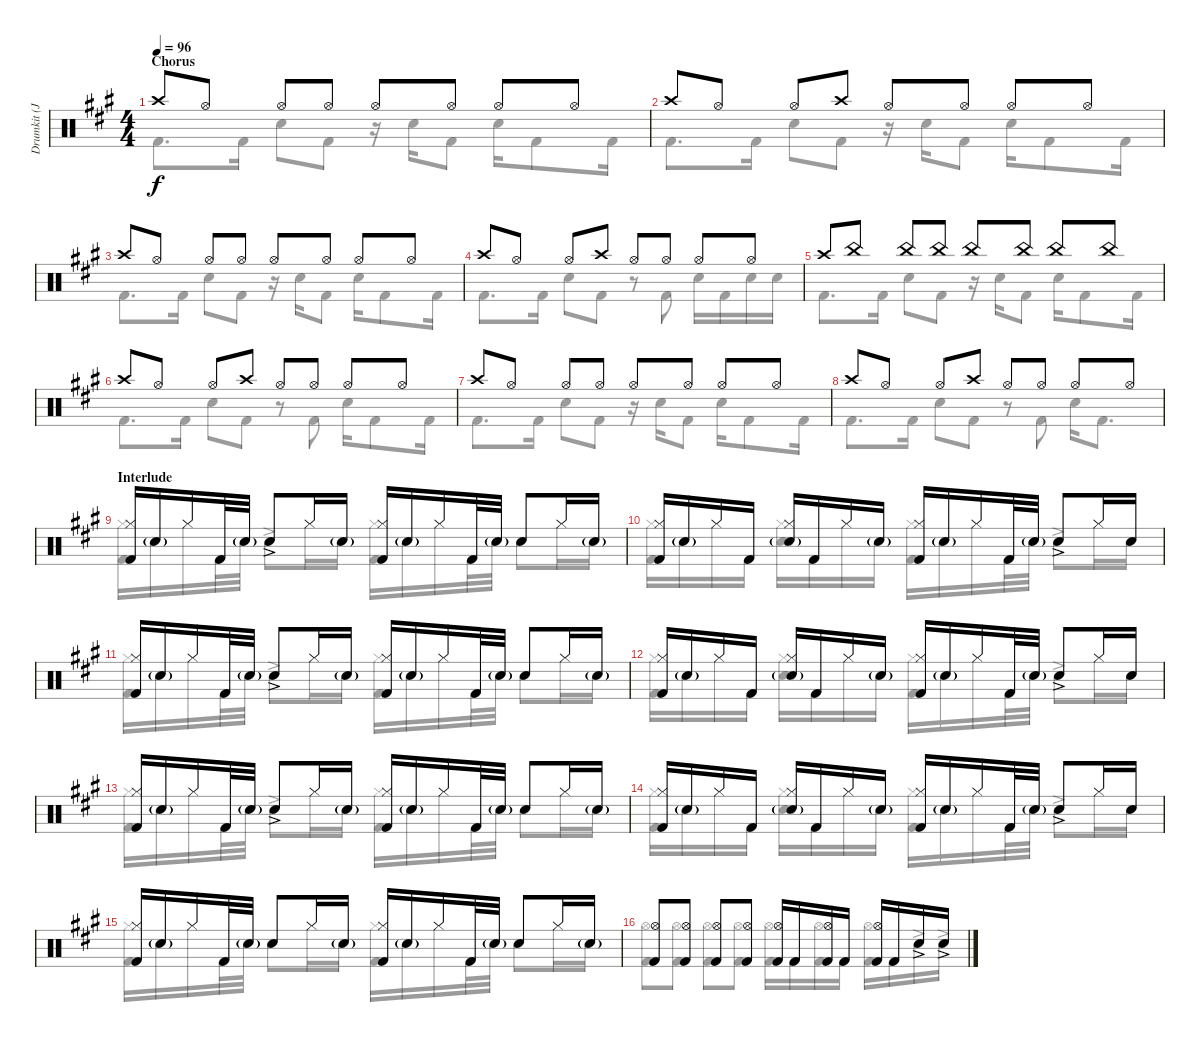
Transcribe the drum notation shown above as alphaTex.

\track ("Drumkit (John Otto)" "Drumkit (J") {instrument percussion}
\staff {score}
\articulation defaults
\voice
\ts (4 4)
\section ("" "Chorus")
\tempo 96
\clef neutral
\ks a "Crash high (hit)".8{dy f} "Hi-Hat (open)".8 "Hi-Hat (open)".8 "Hi-Hat (open)".8 "Hi-Hat (open)".8 "Hi-Hat (open)".8 "Hi-Hat (open)".8 "Hi-Hat (open)".8
|
"Crash high (hit)".8 "Hi-Hat (open)".8 "Hi-Hat (open)".8 "Crash high (hit)".8 "Hi-Hat (open)".8 "Hi-Hat (open)".8 "Hi-Hat (open)".8 "Hi-Hat (open)".8 |
"Crash high (hit)".8 "Hi-Hat (open)".8 "Hi-Hat (open)".8 "Hi-Hat (open)".8 "Hi-Hat (open)".8 "Hi-Hat (open)".8 "Hi-Hat (open)".8 "Hi-Hat (open)".8 |
"Crash high (hit)".8 "Hi-Hat (open)".8 "Hi-Hat (open)".8 "Crash high (hit)".8 "Hi-Hat (open)".8 "Hi-Hat (open)".8 "Hi-Hat (open)".8 "Hi-Hat (open)".8 |
"Crash high (hit)".8 "China (hit)".8 "China (hit)".8 "China (hit)".8 "China (hit)".8 "China (hit)".8 "China (hit)".8 "China (hit)".8 |
"Crash high (hit)".8 "Hi-Hat (open)".8 "Hi-Hat (open)".8 "Crash high (hit)".8 "Hi-Hat (open)".8 "Hi-Hat (open)".8 "Hi-Hat (open)".8 "Hi-Hat (open)".8 |
"Crash high (hit)".8 "Hi-Hat (open)".8 "Hi-Hat (open)".8 "Hi-Hat (open)".8 "Hi-Hat (open)".8 "Hi-Hat (open)".8 "Hi-Hat (open)".8 "Hi-Hat (open)".8 |
"Crash high (hit)".8 "Hi-Hat (open)".8 "Hi-Hat (open)".8 "Crash high (hit)".8 "Hi-Hat (open)".8 "Hi-Hat (open)".8 "Hi-Hat (open)".8 "Hi-Hat (open)".8 |
\section ("" "Interlude")
("Kick (hit) 2" "Hi-Hat (closed)").16 "Snare (hit) 2"{g}.16 "Hi-Hat (closed)".16 "Kick (hit) 2".32 "Snare (hit) 2"{g}.32 "Snare (hit) 2"{ac}.8 "Hi-Hat (closed)".16 "Snare (hit) 2"{g}.16 ("Kick (hit) 2" "Hi-Hat (closed)").16 "Snare (hit) 2"{g}.16 "Hi-Hat (closed)".16 "Kick (hit) 2".32 "Snare (hit) 2"{g}.32 "Snare (hit) 2".8 "Hi-Hat (closed)".16 "Snare (hit) 2"{g}.16 |
("Kick (hit) 2" "Hi-Hat (closed)").16 "Snare (hit) 2"{g}.16 "Hi-Hat (closed)".16 "Kick (hit) 2".16 ("Hi-Hat (closed)" "Snare (hit) 2"{g}).16 "Kick (hit) 2".16 "Hi-Hat (closed)".16 "Snare (hit) 2"{g}.16 ("Kick (hit) 2" "Hi-Hat (closed)").16 "Snare (hit) 2"{g}.16 "Hi-Hat (closed)".16 "Kick (hit) 2".32 "Snare (hit) 2"{g}.32 "Snare (hit) 2"{ac}.8 "Hi-Hat (closed)".16 "Snare (hit) 2".16 |
("Kick (hit) 2" "Hi-Hat (closed)").16 "Snare (hit) 2"{g}.16 "Hi-Hat (closed)".16 "Kick (hit) 2".32 "Snare (hit) 2"{g}.32 "Snare (hit) 2"{ac}.8 "Hi-Hat (closed)".16 "Snare (hit) 2"{g}.16 ("Kick (hit) 2" "Hi-Hat (closed)").16 "Snare (hit) 2"{g}.16 "Hi-Hat (closed)".16 "Kick (hit) 2".32 "Snare (hit) 2"{g}.32 "Snare (hit) 2".8 "Hi-Hat (closed)".16 "Snare (hit) 2"{g}.16 |
("Kick (hit) 2" "Hi-Hat (closed)").16 "Snare (hit) 2"{g}.16 "Hi-Hat (closed)".16 "Kick (hit) 2".16 ("Hi-Hat (closed)" "Snare (hit) 2"{g}).16 "Kick (hit) 2".16 "Hi-Hat (closed)".16 "Snare (hit) 2"{g}.16 ("Kick (hit) 2" "Hi-Hat (closed)").16 "Snare (hit) 2"{g}.16 "Hi-Hat (closed)".16 "Kick (hit) 2".32 "Snare (hit) 2"{g}.32 "Snare (hit) 2"{ac}.8 "Hi-Hat (closed)".16 "Snare (hit) 2".16 |
("Kick (hit) 2" "Hi-Hat (closed)").16 "Snare (hit) 2"{g}.16 "Hi-Hat (closed)".16 "Kick (hit) 2".32 "Snare (hit) 2"{g}.32 "Snare (hit) 2"{ac}.8 "Hi-Hat (closed)".16 "Snare (hit) 2"{g}.16 ("Kick (hit) 2" "Hi-Hat (closed)").16 "Snare (hit) 2"{g}.16 "Hi-Hat (closed)".16 "Kick (hit) 2".32 "Snare (hit) 2"{g}.32 "Snare (hit) 2".8 "Hi-Hat (closed)".16 "Snare (hit) 2"{g}.16 |
("Kick (hit) 2" "Hi-Hat (closed)").16 "Snare (hit) 2"{g}.16 "Hi-Hat (closed)".16 "Kick (hit) 2".16 ("Hi-Hat (closed)" "Snare (hit) 2"{g}).16 "Kick (hit) 2".16 "Hi-Hat (closed)".16 "Snare (hit) 2"{g}.16 ("Kick (hit) 2" "Hi-Hat (closed)").16 "Snare (hit) 2"{g}.16 "Hi-Hat (closed)".16 "Kick (hit) 2".32 "Snare (hit) 2"{g}.32 "Snare (hit) 2"{ac}.8 "Hi-Hat (closed)".16 "Snare (hit) 2".16 |
("Kick (hit) 2" "Hi-Hat (closed)").16 "Snare (hit) 2"{g}.16 "Hi-Hat (closed)".16 "Kick (hit) 2".32 "Snare (hit) 2"{g}.32 "Snare (hit) 2".8 "Hi-Hat (closed)".16 "Snare (hit) 2"{g}.16 ("Kick (hit) 2" "Hi-Hat (closed)").16 "Snare (hit) 2"{g}.16 "Hi-Hat (closed)".16 "Kick (hit) 2".32 "Snare (hit) 2"{g}.32 "Snare (hit) 2".8 "Hi-Hat (closed)".16 "Snare (hit) 2"{g}.16 |
("Hi-Hat (open)" "Kick (hit) 2").8 ("Hi-Hat (open)" "Kick (hit) 2").8 ("Hi-Hat (open)" "Kick (hit) 2").8 ("Hi-Hat (open)" "Kick (hit) 2").8 ("Hi-Hat (open)" "Kick (hit) 2").16 "Kick (hit) 2".16 ("Hi-Hat (open)" "Kick (hit) 2").16 "Kick (hit) 2".16 ("Hi-Hat (open)" "Kick (hit) 2").16 "Kick (hit) 2".16 "Snare (hit) 2"{ac}.16 "Snare (hit) 2"{ac}.16
\voice
\clef neutral
\ottava regular
\simile none
\ks a "Kick (hit) 2".8{d dy f} "Kick (hit) 2".16 "Snare (hit) 2".8 "Kick (hit) 2".8
r.16 "Snare (hit) 2".16 "Kick (hit) 2".8 "Snare (hit) 2".16 "Kick (hit) 2".8 "Kick (hit) 2".16 |
"Kick (hit) 2".8{d} "Kick (hit) 2".16 "Snare (hit) 2".8 "Kick (hit) 2".8 r.16 "Snare (hit) 2".16 "Kick (hit) 2".8 "Snare (hit) 2".16 "Kick (hit) 2".8 "Kick (hit) 2".16 |
"Kick (hit) 2".8{d} "Kick (hit) 2".16 "Snare (hit) 2".8 "Kick (hit) 2".8 r.16 "Snare (hit) 2".16 "Kick (hit) 2".8 "Snare (hit) 2".16 "Kick (hit) 2".8 "Kick (hit) 2".16 |
"Kick (hit) 2".8{d} "Kick (hit) 2".16 "Snare (hit) 2".8 "Kick (hit) 2".8 r.8 "Kick (hit) 2".8 "Snare (hit) 2".16 "Kick (hit) 2".16 "Snare (hit) 2".16 "Snare (hit) 2".16 |
"Kick (hit) 2".8{d} "Kick (hit) 2".16 "Snare (hit) 2".8 "Kick (hit) 2".8 r.16 "Snare (hit) 2".16 "Kick (hit) 2".8 "Snare (hit) 2".16 "Kick (hit) 2".8 "Kick (hit) 2".16 |
"Kick (hit) 2".8{d} "Kick (hit) 2".16 "Snare (hit) 2".8 "Kick (hit) 2".8 r.8 "Kick (hit) 2".8 "Snare (hit) 2".16 "Kick (hit) 2".8 "Kick (hit) 2".16 |
"Kick (hit) 2".8{d} "Kick (hit) 2".16 "Snare (hit) 2".8 "Kick (hit) 2".8 r.16 "Snare (hit) 2".16 "Kick (hit) 2".8 "Snare (hit) 2".16 "Kick (hit) 2".8 "Kick (hit) 2".16 |
"Kick (hit) 2".8{d} "Kick (hit) 2".16 "Snare (hit) 2".8 "Kick (hit) 2".8 r.8 "Kick (hit) 2".8 "Snare (hit) 2".16 "Kick (hit) 2".8{d} |
("Kick (hit) 2" "Hi-Hat (closed)").16 "Snare (hit) 2"{g}.16 "Hi-Hat (closed)".16 "Kick (hit) 2".32 "Snare (hit) 2"{g}.32 "Snare (hit) 2"{ac}.8 "Hi-Hat (closed)".16 "Snare (hit) 2"{g}.16 ("Kick (hit) 2" "Hi-Hat (closed)").16 "Snare (hit) 2"{g}.16 "Hi-Hat (closed)".16 "Kick (hit) 2".32 "Snare (hit) 2"{g}.32 "Snare (hit) 2".8 "Hi-Hat (closed)".16 "Snare (hit) 2"{g}.16 |
("Kick (hit) 2" "Hi-Hat (closed)").16 "Snare (hit) 2"{g}.16 "Hi-Hat (closed)".16 "Kick (hit) 2".16 ("Hi-Hat (closed)" "Snare (hit) 2"{g}).16 "Kick (hit) 2".16 "Hi-Hat (closed)".16 "Snare (hit) 2"{g}.16 ("Kick (hit) 2" "Hi-Hat (closed)").16 "Snare (hit) 2"{g}.16 "Hi-Hat (closed)".16 "Kick (hit) 2".32 "Snare (hit) 2"{g}.32 "Snare (hit) 2"{ac}.8 "Hi-Hat (closed)".16 "Snare (hit) 2".16 |
("Kick (hit) 2" "Hi-Hat (closed)").16 "Snare (hit) 2"{g}.16 "Hi-Hat (closed)".16 "Kick (hit) 2".32 "Snare (hit) 2"{g}.32 "Snare (hit) 2"{ac}.8 "Hi-Hat (closed)".16 "Snare (hit) 2"{g}.16 ("Kick (hit) 2" "Hi-Hat (closed)").16 "Snare (hit) 2"{g}.16 "Hi-Hat (closed)".16 "Kick (hit) 2".32 "Snare (hit) 2"{g}.32 "Snare (hit) 2".8 "Hi-Hat (closed)".16 "Snare (hit) 2"{g}.16 |
("Kick (hit) 2" "Hi-Hat (closed)").16 "Snare (hit) 2"{g}.16 "Hi-Hat (closed)".16 "Kick (hit) 2".16 ("Hi-Hat (closed)" "Snare (hit) 2"{g}).16 "Kick (hit) 2".16 "Hi-Hat (closed)".16 "Snare (hit) 2"{g}.16 ("Kick (hit) 2" "Hi-Hat (closed)").16 "Snare (hit) 2"{g}.16 "Hi-Hat (closed)".16 "Kick (hit) 2".32 "Snare (hit) 2"{g}.32 "Snare (hit) 2"{ac}.8 "Hi-Hat (closed)".16 "Snare (hit) 2".16 |
("Kick (hit) 2" "Hi-Hat (closed)").16 "Snare (hit) 2"{g}.16 "Hi-Hat (closed)".16 "Kick (hit) 2".32 "Snare (hit) 2"{g}.32 "Snare (hit) 2"{ac}.8 "Hi-Hat (closed)".16 "Snare (hit) 2"{g}.16 ("Kick (hit) 2" "Hi-Hat (closed)").16 "Snare (hit) 2"{g}.16 "Hi-Hat (closed)".16 "Kick (hit) 2".32 "Snare (hit) 2"{g}.32 "Snare (hit) 2".8 "Hi-Hat (closed)".16 "Snare (hit) 2"{g}.16 |
("Kick (hit) 2" "Hi-Hat (closed)").16 "Snare (hit) 2"{g}.16 "Hi-Hat (closed)".16 "Kick (hit) 2".16 ("Hi-Hat (closed)" "Snare (hit) 2"{g}).16 "Kick (hit) 2".16 "Hi-Hat (closed)".16 "Snare (hit) 2"{g}.16 ("Kick (hit) 2" "Hi-Hat (closed)").16 "Snare (hit) 2"{g}.16 "Hi-Hat (closed)".16 "Kick (hit) 2".32 "Snare (hit) 2"{g}.32 "Snare (hit) 2"{ac}.8 "Hi-Hat (closed)".16 "Snare (hit) 2".16 |
("Kick (hit) 2" "Hi-Hat (closed)").16 "Snare (hit) 2"{g}.16 "Hi-Hat (closed)".16 "Kick (hit) 2".32 "Snare (hit) 2"{g}.32 "Snare (hit) 2".8 "Hi-Hat (closed)".16 "Snare (hit) 2"{g}.16 ("Kick (hit) 2" "Hi-Hat (closed)").16 "Snare (hit) 2"{g}.16 "Hi-Hat (closed)".16 "Kick (hit) 2".32 "Snare (hit) 2"{g}.32 "Snare (hit) 2".8 "Hi-Hat (closed)".16 "Snare (hit) 2"{g}.16 |
("Hi-Hat (open)" "Kick (hit) 2").8 ("Hi-Hat (open)" "Kick (hit) 2").8 ("Hi-Hat (open)" "Kick (hit) 2").8 ("Hi-Hat (open)" "Kick (hit) 2").8 ("Hi-Hat (open)" "Kick (hit) 2").16 "Kick (hit) 2".16 ("Hi-Hat (open)" "Kick (hit) 2").16 "Kick (hit) 2".16 ("Hi-Hat (open)" "Kick (hit) 2").16 "Kick (hit) 2".16 "Snare (hit) 2"{ac}.16 "Snare (hit) 2"{ac}.16
